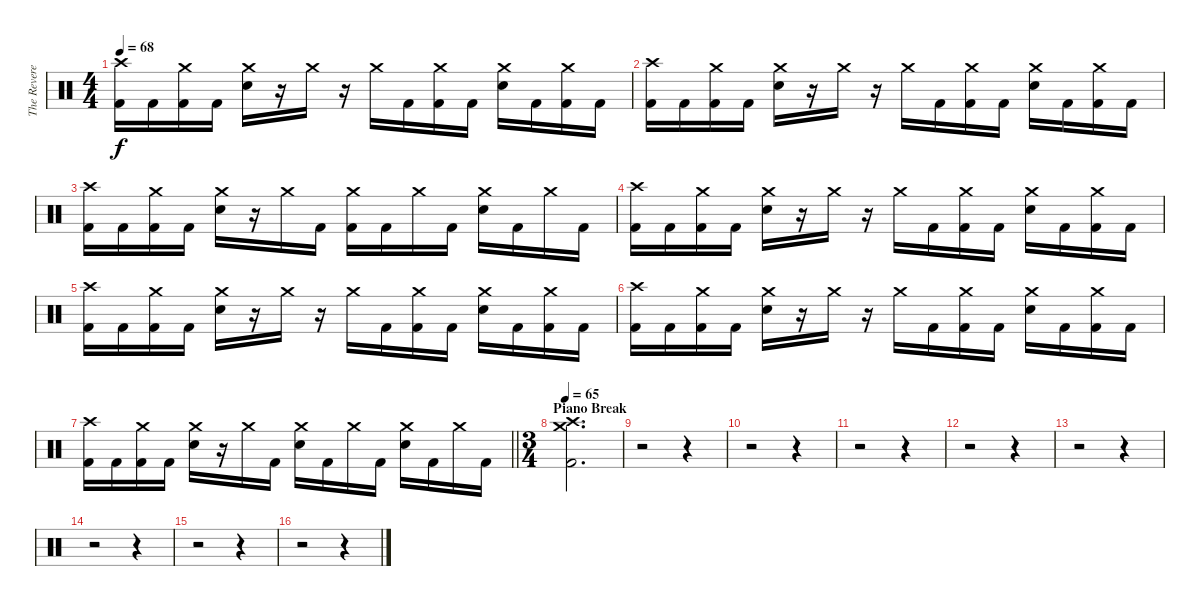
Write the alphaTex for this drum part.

\track ("The Reverend" "The Revere") {instrument percussion}
\staff {score}
\articulation defaults
\ts (4 4)
\tempo 68
\clef neutral
\ks c
("Crash high (hit)" "Kick (hit) 2").16{dy f} "Kick (hit) 2".16 ("Crash medium (hit)" "Kick (hit) 2").16 "Kick (hit) 2".16 ("Crash medium (hit)" "Electric Snare (hit)").16 r.16 "Crash medium (hit)".16 r.16 "Crash medium (hit)".16 "Kick (hit) 2".16 ("Crash medium (hit)" "Kick (hit) 2").16 "Kick (hit) 2".16 ("Crash medium (hit)" "Electric Snare (hit)").16 "Kick (hit) 2".16 ("Crash medium (hit)" "Kick (hit) 2").16 "Kick (hit) 2".16 |
("Crash high (hit)" "Kick (hit) 2").16 "Kick (hit) 2".16 ("Crash medium (hit)" "Kick (hit) 2").16 "Kick (hit) 2".16 ("Crash medium (hit)" "Electric Snare (hit)").16 r.16 "Crash medium (hit)".16 r.16 "Crash medium (hit)".16 "Kick (hit) 2".16 ("Crash medium (hit)" "Kick (hit) 2").16 "Kick (hit) 2".16 ("Crash medium (hit)" "Electric Snare (hit)").16 "Kick (hit) 2".16 ("Crash medium (hit)" "Kick (hit) 2").16 "Kick (hit) 2".16 |
("Crash high (hit)" "Kick (hit) 2").16 "Kick (hit) 2".16 ("Crash medium (hit)" "Kick (hit) 2").16 "Kick (hit) 2".16 ("Crash medium (hit)" "Electric Snare (hit)").16 r.16 "Crash medium (hit)".16 "Kick (hit) 2".16 ("Crash medium (hit)" "Kick (hit) 2").16 "Kick (hit) 2".16 "Crash medium (hit)".16 "Kick (hit) 2".16 ("Crash medium (hit)" "Electric Snare (hit)").16 "Kick (hit) 2".16 "Crash medium (hit)".16 "Kick (hit) 2".16 |
("Crash high (hit)" "Kick (hit) 2").16 "Kick (hit) 2".16 ("Crash medium (hit)" "Kick (hit) 2").16 "Kick (hit) 2".16 ("Crash medium (hit)" "Electric Snare (hit)").16 r.16 "Crash medium (hit)".16 r.16 "Crash medium (hit)".16 "Kick (hit) 2".16 ("Crash medium (hit)" "Kick (hit) 2").16 "Kick (hit) 2".16 ("Crash medium (hit)" "Electric Snare (hit)").16 "Kick (hit) 2".16 ("Crash medium (hit)" "Kick (hit) 2").16 "Kick (hit) 2".16 |
("Crash high (hit)" "Kick (hit) 2").16 "Kick (hit) 2".16 ("Crash medium (hit)" "Kick (hit) 2").16 "Kick (hit) 2".16 ("Crash medium (hit)" "Electric Snare (hit)").16 r.16 "Crash medium (hit)".16 r.16 "Crash medium (hit)".16 "Kick (hit) 2".16 ("Crash medium (hit)" "Kick (hit) 2").16 "Kick (hit) 2".16 ("Crash medium (hit)" "Electric Snare (hit)").16 "Kick (hit) 2".16 ("Crash medium (hit)" "Kick (hit) 2").16 "Kick (hit) 2".16 |
("Crash high (hit)" "Kick (hit) 2").16 "Kick (hit) 2".16 ("Crash medium (hit)" "Kick (hit) 2").16 "Kick (hit) 2".16 ("Crash medium (hit)" "Electric Snare (hit)").16 r.16 "Crash medium (hit)".16 r.16 "Crash medium (hit)".16 "Kick (hit) 2".16 ("Crash medium (hit)" "Kick (hit) 2").16 "Kick (hit) 2".16 ("Crash medium (hit)" "Electric Snare (hit)").16 "Kick (hit) 2".16 ("Crash medium (hit)" "Kick (hit) 2").16 "Kick (hit) 2".16 |
\barLineRight lightlight
("Crash high (hit)" "Kick (hit) 2").16 "Kick (hit) 2".16 ("Crash medium (hit)" "Kick (hit) 2").16 "Kick (hit) 2".16 ("Crash medium (hit)" "Electric Snare (hit)").16 r.16 "Crash medium (hit)".16 "Kick (hit) 2".16 ("Crash medium (hit)" "Electric Snare (hit)").16 "Kick (hit) 2".16 "Crash medium (hit)".16 "Kick (hit) 2".16 ("Crash medium (hit)" "Electric Snare (hit)").16 "Kick (hit) 2".16 "Crash medium (hit)".16 "Kick (hit) 2".16 |
\ts (3 4)
\section ("" "Piano Break")
\tempo 65
("Crash medium (hit)" "Crash high (hit)" "Kick (hit) 2").2{d} |
r.2 r.4 |
r.2 r.4 |
r.2 r.4 |
r.2 r.4 |
r.2 r.4 |
r.2 r.4 |
r.2 r.4 |
r.2 r.4
